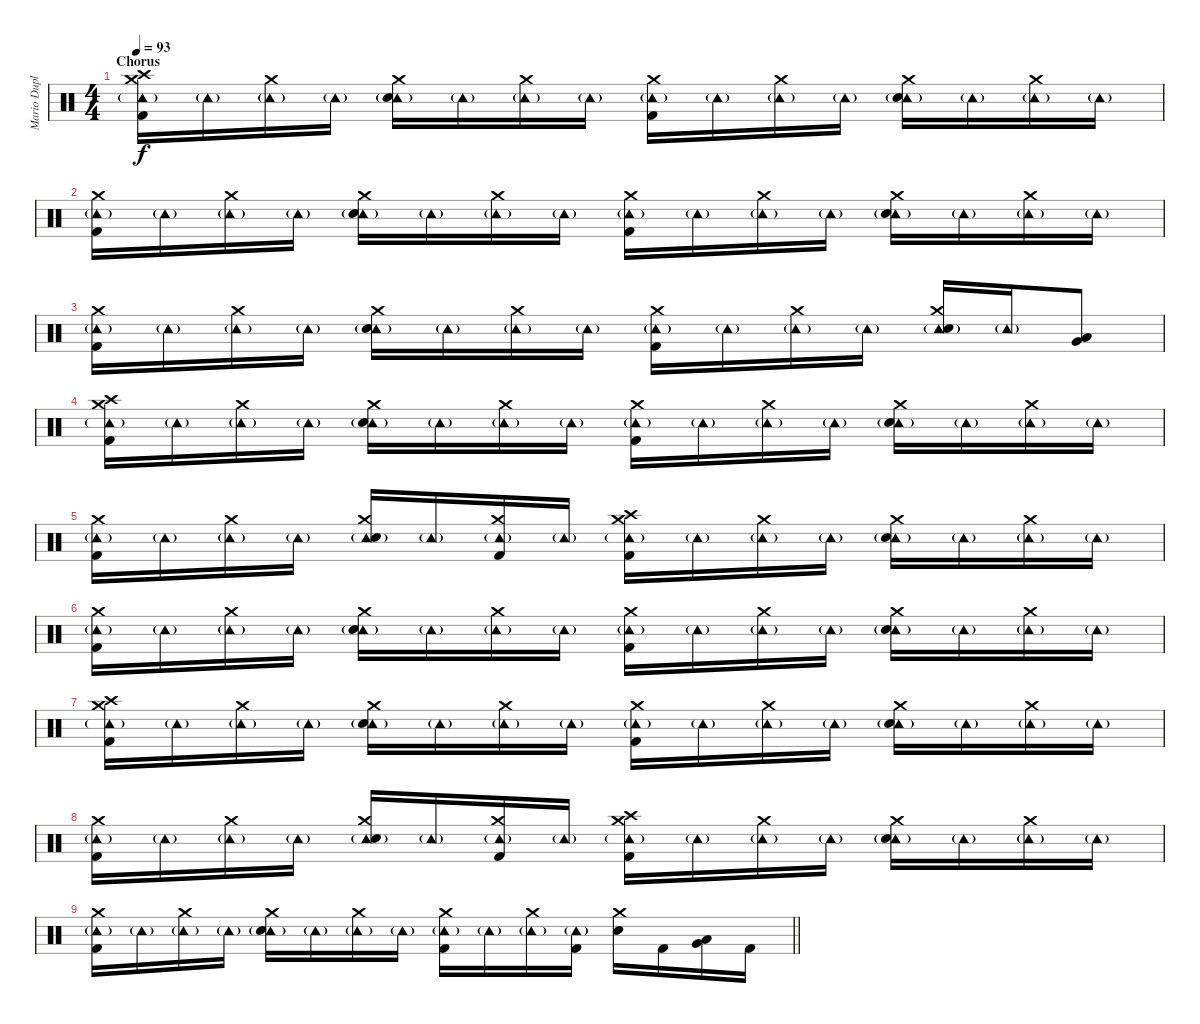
\track ("Mario Duplantier" "Mario Dupl") {instrument percussion}
\staff {score}
\articulation defaults
\ts (4 4)
\section ("" "Chorus")
\tempo 93
\clef neutral
\ks c
("Tambourine (hit)"{g} "Crash high (hit)" "Crash medium (hit)" "Kick (hit) 2").16{dy f} "Tambourine (hit)"{g}.16 ("Tambourine (hit)"{g} "Crash medium (hit)").16 "Tambourine (hit)"{g}.16 ("Tambourine (hit)"{g} "Crash medium (hit)" "Snare (hit) 2").16 "Tambourine (hit)"{g}.16 ("Tambourine (hit)"{g} "Crash medium (hit)").16 "Tambourine (hit)"{g}.16 ("Tambourine (hit)"{g} "Crash medium (hit)" "Kick (hit) 2").16 "Tambourine (hit)"{g}.16 ("Tambourine (hit)"{g} "Crash medium (hit)").16 "Tambourine (hit)"{g}.16 ("Tambourine (hit)"{g} "Crash medium (hit)" "Snare (hit) 2").16 "Tambourine (hit)"{g}.16 ("Tambourine (hit)"{g} "Crash medium (hit)").16 "Tambourine (hit)"{g}.16 |
("Tambourine (hit)"{g} "Crash medium (hit)" "Kick (hit) 2").16 "Tambourine (hit)"{g}.16 ("Tambourine (hit)"{g} "Crash medium (hit)").16 "Tambourine (hit)"{g}.16 ("Tambourine (hit)"{g} "Crash medium (hit)" "Snare (hit) 2").16 "Tambourine (hit)"{g}.16 ("Tambourine (hit)"{g} "Crash medium (hit)").16 "Tambourine (hit)"{g}.16 ("Tambourine (hit)"{g} "Crash medium (hit)" "Kick (hit) 2").16 "Tambourine (hit)"{g}.16 ("Tambourine (hit)"{g} "Crash medium (hit)").16 "Tambourine (hit)"{g}.16 ("Tambourine (hit)"{g} "Crash medium (hit)" "Snare (hit) 2").16 "Tambourine (hit)"{g}.16 ("Tambourine (hit)"{g} "Crash medium (hit)").16 "Tambourine (hit)"{g}.16 |
("Tambourine (hit)"{g} "Crash medium (hit)" "Kick (hit) 2").16 "Tambourine (hit)"{g}.16 ("Tambourine (hit)"{g} "Crash medium (hit)").16 "Tambourine (hit)"{g}.16 ("Tambourine (hit)"{g} "Crash medium (hit)" "Snare (hit) 2").16 "Tambourine (hit)"{g}.16 ("Tambourine (hit)"{g} "Crash medium (hit)").16 "Tambourine (hit)"{g}.16 ("Tambourine (hit)"{g} "Crash medium (hit)" "Kick (hit) 2").16 "Tambourine (hit)"{g}.16 ("Tambourine (hit)"{g} "Crash medium (hit)").16 "Tambourine (hit)"{g}.16 ("Tambourine (hit)"{g} "Crash medium (hit)" "Snare (hit) 2").16 "Tambourine (hit)"{g}.16 ("Very Low Tom (hit)" "Low Floor Tom (hit)").8 |
("Tambourine (hit)"{g} "Crash high (hit)" "Crash medium (hit)" "Kick (hit) 2").16 "Tambourine (hit)"{g}.16 ("Tambourine (hit)"{g} "Crash medium (hit)").16 "Tambourine (hit)"{g}.16 ("Tambourine (hit)"{g} "Crash medium (hit)" "Snare (hit) 2").16 "Tambourine (hit)"{g}.16 ("Tambourine (hit)"{g} "Crash medium (hit)").16 "Tambourine (hit)"{g}.16 ("Tambourine (hit)"{g} "Crash medium (hit)" "Kick (hit) 2").16 "Tambourine (hit)"{g}.16 ("Tambourine (hit)"{g} "Crash medium (hit)").16 "Tambourine (hit)"{g}.16 ("Tambourine (hit)"{g} "Crash medium (hit)" "Snare (hit) 2").16 "Tambourine (hit)"{g}.16 ("Tambourine (hit)"{g} "Crash medium (hit)").16 "Tambourine (hit)"{g}.16 |
("Tambourine (hit)"{g} "Crash medium (hit)" "Kick (hit) 2").16 "Tambourine (hit)"{g}.16 ("Tambourine (hit)"{g} "Crash medium (hit)").16 "Tambourine (hit)"{g}.16 ("Tambourine (hit)"{g} "Crash medium (hit)" "Snare (hit) 2").16 "Tambourine (hit)"{g}.16 ("Tambourine (hit)"{g} "Crash medium (hit)" "Kick (hit) 2").16 "Tambourine (hit)"{g}.16 ("Tambourine (hit)"{g} "Crash high (hit)" "Crash medium (hit)" "Kick (hit) 2").16 "Tambourine (hit)"{g}.16 ("Tambourine (hit)"{g} "Crash medium (hit)").16 "Tambourine (hit)"{g}.16 ("Tambourine (hit)"{g} "Crash medium (hit)" "Snare (hit) 2").16 "Tambourine (hit)"{g}.16 ("Tambourine (hit)"{g} "Crash medium (hit)").16 "Tambourine (hit)"{g}.16 |
("Tambourine (hit)"{g} "Crash medium (hit)" "Kick (hit) 2").16 "Tambourine (hit)"{g}.16 ("Tambourine (hit)"{g} "Crash medium (hit)").16 "Tambourine (hit)"{g}.16 ("Tambourine (hit)"{g} "Crash medium (hit)" "Snare (hit) 2").16 "Tambourine (hit)"{g}.16 ("Tambourine (hit)"{g} "Crash medium (hit)").16 "Tambourine (hit)"{g}.16 ("Tambourine (hit)"{g} "Crash medium (hit)" "Kick (hit) 2").16 "Tambourine (hit)"{g}.16 ("Tambourine (hit)"{g} "Crash medium (hit)").16 "Tambourine (hit)"{g}.16 ("Tambourine (hit)"{g} "Crash medium (hit)" "Snare (hit) 2").16 "Tambourine (hit)"{g}.16 ("Tambourine (hit)"{g} "Crash medium (hit)").16 "Tambourine (hit)"{g}.16 |
("Tambourine (hit)"{g} "Crash high (hit)" "Crash medium (hit)" "Kick (hit) 2").16 "Tambourine (hit)"{g}.16 ("Tambourine (hit)"{g} "Crash medium (hit)").16 "Tambourine (hit)"{g}.16 ("Tambourine (hit)"{g} "Crash medium (hit)" "Snare (hit) 2").16 "Tambourine (hit)"{g}.16 ("Tambourine (hit)"{g} "Crash medium (hit)").16 "Tambourine (hit)"{g}.16 ("Tambourine (hit)"{g} "Crash medium (hit)" "Kick (hit) 2").16 "Tambourine (hit)"{g}.16 ("Tambourine (hit)"{g} "Crash medium (hit)").16 "Tambourine (hit)"{g}.16 ("Tambourine (hit)"{g} "Crash medium (hit)" "Snare (hit) 2").16 "Tambourine (hit)"{g}.16 ("Tambourine (hit)"{g} "Crash medium (hit)").16 "Tambourine (hit)"{g}.16 |
("Tambourine (hit)"{g} "Crash medium (hit)" "Kick (hit) 2").16 "Tambourine (hit)"{g}.16 ("Tambourine (hit)"{g} "Crash medium (hit)").16 "Tambourine (hit)"{g}.16 ("Tambourine (hit)"{g} "Crash medium (hit)" "Snare (hit) 2").16 "Tambourine (hit)"{g}.16 ("Tambourine (hit)"{g} "Crash medium (hit)" "Kick (hit) 2").16 "Tambourine (hit)"{g}.16 ("Tambourine (hit)"{g} "Crash high (hit)" "Crash medium (hit)" "Kick (hit) 2").16 "Tambourine (hit)"{g}.16 ("Tambourine (hit)"{g} "Crash medium (hit)").16 "Tambourine (hit)"{g}.16 ("Tambourine (hit)"{g} "Crash medium (hit)" "Snare (hit) 2").16 "Tambourine (hit)"{g}.16 ("Tambourine (hit)"{g} "Crash medium (hit)").16 "Tambourine (hit)"{g}.16 |
\barLineRight lightlight
("Tambourine (hit)"{g} "Crash medium (hit)" "Kick (hit) 2").16 "Tambourine (hit)"{g}.16 ("Tambourine (hit)"{g} "Crash medium (hit)").16 "Tambourine (hit)"{g}.16 ("Tambourine (hit)"{g} "Crash medium (hit)" "Snare (hit) 2").16 "Tambourine (hit)"{g}.16 ("Tambourine (hit)"{g} "Crash medium (hit)").16 "Tambourine (hit)"{g}.16 ("Tambourine (hit)"{g} "Crash medium (hit)" "Kick (hit) 2").16 "Tambourine (hit)"{g}.16 ("Tambourine (hit)"{g} "Crash medium (hit)").16 ("Tambourine (hit)"{g} "Kick (hit) 2").16 ("Crash medium (hit)" "Snare (hit) 2").16 "Kick (hit) 2".16 ("Very Low Tom (hit)" "Low Floor Tom (hit)").16 "Kick (hit) 2".16
